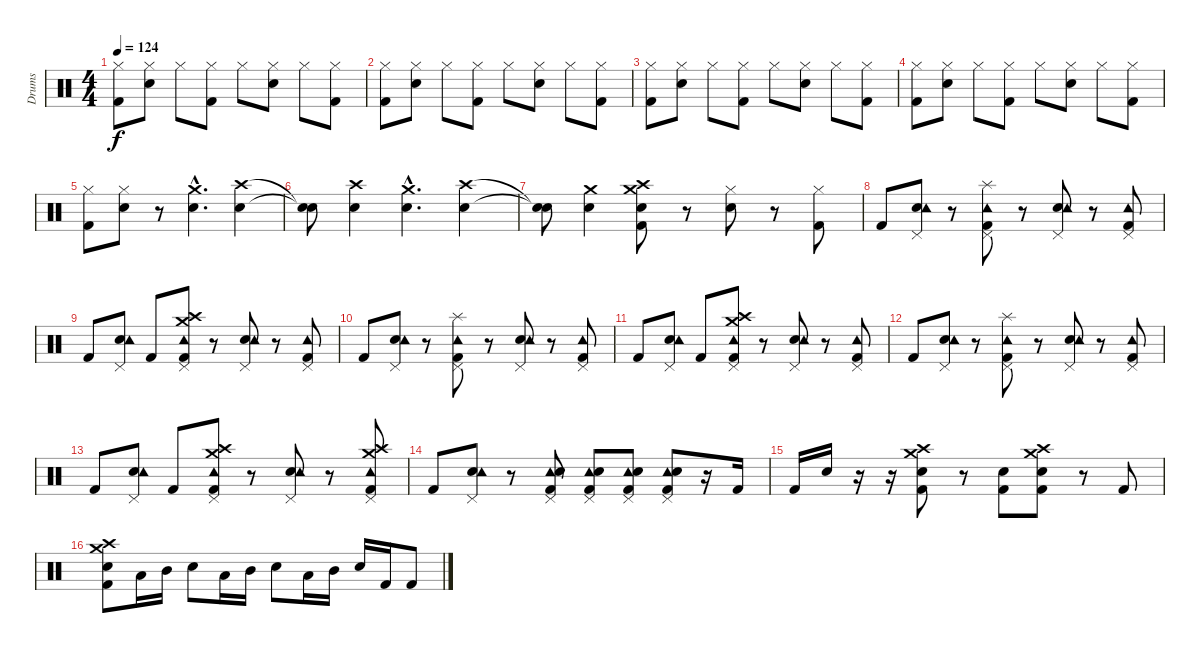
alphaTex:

\track ("Drums" "Drums") {instrument percussion}
\staff {score}
\articulation defaults
\ts (4 4)
\tempo 124
\clef neutral
\ks c
("Kick (hit) 2" "Hi-Hat (closed)").8{dy f} ("Snare (hit) 2" "Hi-Hat (closed)").8 "Hi-Hat (closed)".8 ("Kick (hit) 2" "Hi-Hat (closed)").8 "Hi-Hat (closed)".8 ("Snare (hit) 2" "Hi-Hat (closed)").8 "Hi-Hat (closed)".8 ("Kick (hit) 2" "Hi-Hat (closed)").8 |
("Kick (hit) 2" "Hi-Hat (closed)").8 ("Snare (hit) 2" "Hi-Hat (closed)").8 "Hi-Hat (closed)".8 ("Kick (hit) 2" "Hi-Hat (closed)").8 "Hi-Hat (closed)".8 ("Snare (hit) 2" "Hi-Hat (closed)").8 "Hi-Hat (closed)".8 ("Kick (hit) 2" "Hi-Hat (closed)").8 |
("Kick (hit) 2" "Hi-Hat (closed)").8 ("Snare (hit) 2" "Hi-Hat (closed)").8 "Hi-Hat (closed)".8 ("Kick (hit) 2" "Hi-Hat (closed)").8 "Hi-Hat (closed)".8 ("Snare (hit) 2" "Hi-Hat (closed)").8 "Hi-Hat (closed)".8 ("Kick (hit) 2" "Hi-Hat (closed)").8 |
("Kick (hit) 2" "Hi-Hat (closed)").8 ("Snare (hit) 2" "Hi-Hat (closed)").8 "Hi-Hat (closed)".8 ("Kick (hit) 2" "Hi-Hat (closed)").8 "Hi-Hat (closed)".8 ("Snare (hit) 2" "Hi-Hat (closed)").8 "Hi-Hat (closed)".8 ("Kick (hit) 2" "Hi-Hat (closed)").8 |
("Kick (hit) 2" "Hi-Hat (closed)").8 ("Snare (hit) 2" "Hi-Hat (closed)").8 r.8 ("Snare (hit) 2"{hac} "Crash medium (hit)"{hac}).4{d} ("Snare (hit) 2" "Crash high (hit)").4 |
("Snare (hit)"{t} "Snare (hit)"{t}).8 ("Snare (hit) 2" "Crash high (hit)").4 ("Snare (hit) 2"{hac} "Crash medium (hit)"{hac}).4{d} ("Snare (hit) 2" "Crash high (hit)").4 |
("Snare (hit)"{t} "Snare (hit)"{t}).8 ("Snare (hit) 2" "Crash medium (hit)").4 ("Kick (hit) 2" "Snare (hit) 2" "Crash high (hit)" "Crash medium (hit)").8 r.8 ("Snare (hit) 2" "Hi-Hat (closed)").8 r.8 ("Kick (hit) 2" "Hi-Hat (closed)").8 |
"Kick (hit) 2".8 ("Snare (hit) 2" "Tambourine (hit)" "Pedal Hi-Hat (hit)").8 r.8 ("Kick (hit) 2" "Tambourine (hit)" "Pedal Hi-Hat (hit)" "Splash (hit)").8 r.8 ("Snare (hit) 2" "Tambourine (hit)" "Pedal Hi-Hat (hit)").8 r.8 ("Kick (hit) 2" "Tambourine (hit)" "Pedal Hi-Hat (hit)").8 |
"Kick (hit) 2".8 ("Snare (hit) 2" "Tambourine (hit)" "Pedal Hi-Hat (hit)").8 "Kick (hit) 2".8 ("Kick (hit) 2" "Tambourine (hit)" "Pedal Hi-Hat (hit)" "Crash high (hit)" "Crash medium (hit)").8 r.8 ("Snare (hit) 2" "Tambourine (hit)" "Pedal Hi-Hat (hit)").8 r.8 ("Kick (hit) 2" "Tambourine (hit)" "Pedal Hi-Hat (hit)").8 |
"Kick (hit) 2".8 ("Snare (hit) 2" "Tambourine (hit)" "Pedal Hi-Hat (hit)").8 r.8 ("Kick (hit) 2" "Tambourine (hit)" "Pedal Hi-Hat (hit)" "Splash (hit)").8 r.8 ("Snare (hit) 2" "Tambourine (hit)" "Pedal Hi-Hat (hit)").8 r.8 ("Kick (hit) 2" "Tambourine (hit)" "Pedal Hi-Hat (hit)").8 |
"Kick (hit) 2".8 ("Snare (hit) 2" "Tambourine (hit)" "Pedal Hi-Hat (hit)").8 "Kick (hit) 2".8 ("Kick (hit) 2" "Tambourine (hit)" "Pedal Hi-Hat (hit)" "Crash high (hit)" "Crash medium (hit)").8 r.8 ("Snare (hit) 2" "Tambourine (hit)" "Pedal Hi-Hat (hit)").8 r.8 ("Kick (hit) 2" "Tambourine (hit)" "Pedal Hi-Hat (hit)").8 |
"Kick (hit) 2".8 ("Snare (hit) 2" "Tambourine (hit)" "Pedal Hi-Hat (hit)").8 r.8 ("Kick (hit) 2" "Tambourine (hit)" "Pedal Hi-Hat (hit)" "Splash (hit)").8 r.8 ("Snare (hit) 2" "Tambourine (hit)" "Pedal Hi-Hat (hit)").8 r.8 ("Kick (hit) 2" "Tambourine (hit)" "Pedal Hi-Hat (hit)").8 |
"Kick (hit) 2".8 ("Snare (hit) 2" "Tambourine (hit)" "Pedal Hi-Hat (hit)").8 "Kick (hit) 2".8 ("Kick (hit) 2" "Tambourine (hit)" "Pedal Hi-Hat (hit)" "Crash high (hit)" "Crash medium (hit)").8 r.8 ("Snare (hit) 2" "Tambourine (hit)" "Pedal Hi-Hat (hit)").8 r.8 ("Kick (hit) 2" "Tambourine (hit)" "Pedal Hi-Hat (hit)" "Crash high (hit)" "Crash medium (hit)").8 |
"Kick (hit) 2".8 ("Snare (hit) 2" "Tambourine (hit)" "Pedal Hi-Hat (hit)").8 r.8 ("Kick (hit) 2" "Tambourine (hit)" "Pedal Hi-Hat (hit)" "Snare (hit) 2").8 ("Kick (hit) 2" "Tambourine (hit)" "Pedal Hi-Hat (hit)" "Snare (hit) 2").8 ("Kick (hit) 2" "Tambourine (hit)" "Pedal Hi-Hat (hit)" "Snare (hit) 2").8 ("Kick (hit) 2" "Tambourine (hit)" "Pedal Hi-Hat (hit)" "Snare (hit) 2").8 r.16 "Kick (hit) 2".16 |
"Kick (hit) 2".16 "Snare (hit) 2".16 r.16 r.16 ("Kick (hit) 2" "Snare (hit) 2" "Crash high (hit)" "Crash medium (hit)").8 r.8 ("Kick (hit) 2" "Snare (hit) 2").8 ("Kick (hit) 2" "Snare (hit) 2" "Crash high (hit)" "Crash medium (hit)").8 r.8 "Kick (hit) 2".8 |
("Kick (hit) 2" "Snare (hit) 2" "Crash high (hit)" "Crash medium (hit)").8 "Low Tom (hit)".16 "Mid Tom (hit)".16 "Snare (hit) 2".8 "Low Tom (hit)".16 "Mid Tom (hit)".16 "Snare (hit) 2".8 "Low Tom (hit)".16 "Mid Tom (hit)".16 "Snare (hit) 2".16 "Kick (hit) 2".16 "Kick (hit) 2".8
